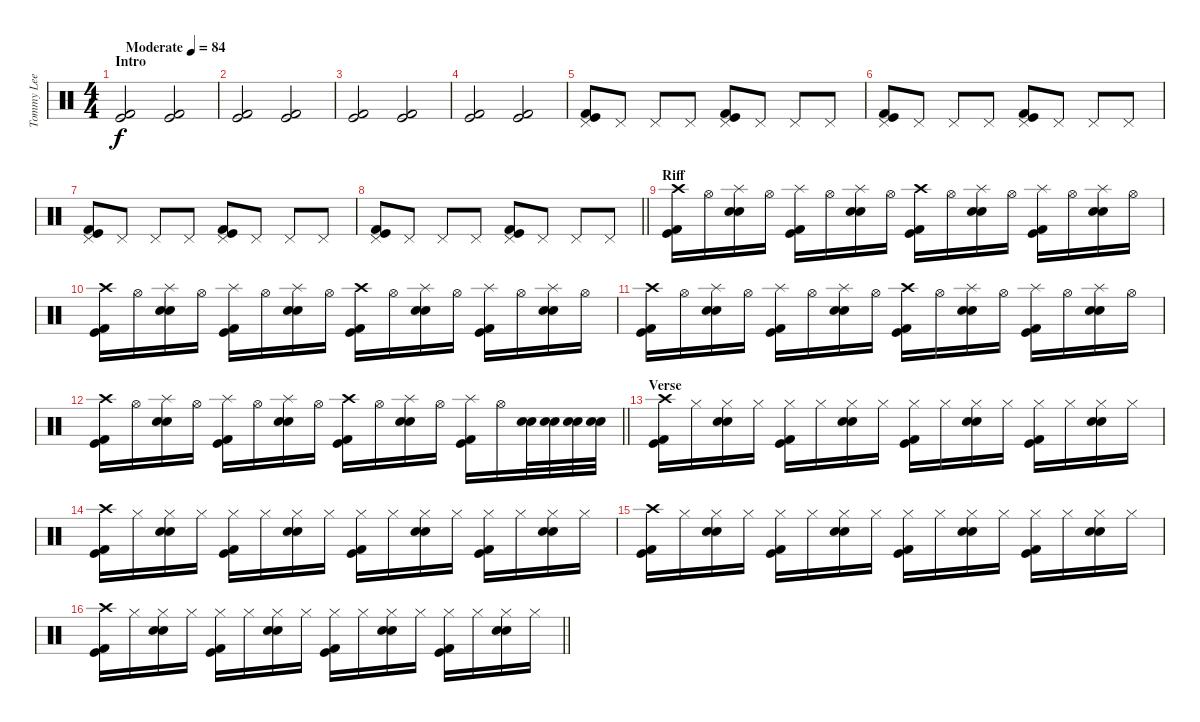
\track ("Tommy Lee" "Tommy Lee") {instrument percussion}
\staff {score}
\articulation defaults
\ts (4 4)
\section ("" "Intro")
\tempo (84 "Moderate")
\clef neutral
\ks c
("Kick (hit) 2" "Kick (hit)").2{dy f volume 5} ("Kick (hit) 2" "Kick (hit)").2 |
("Kick (hit) 2" "Kick (hit)").2 ("Kick (hit) 2" "Kick (hit)").2 |
("Kick (hit) 2" "Kick (hit)").2 ("Kick (hit) 2" "Kick (hit)").2 |
("Kick (hit) 2" "Kick (hit)").2 ("Kick (hit) 2" "Kick (hit)").2 |
("Pedal Hi-Hat (hit)" "Kick (hit) 2" "Kick (hit)").8 "Pedal Hi-Hat (hit)".8 "Pedal Hi-Hat (hit)".8 "Pedal Hi-Hat (hit)".8 ("Pedal Hi-Hat (hit)" "Kick (hit) 2" "Kick (hit)").8 "Pedal Hi-Hat (hit)".8 "Pedal Hi-Hat (hit)".8 "Pedal Hi-Hat (hit)".8 |
("Pedal Hi-Hat (hit)" "Kick (hit) 2" "Kick (hit)").8 "Pedal Hi-Hat (hit)".8 "Pedal Hi-Hat (hit)".8 "Pedal Hi-Hat (hit)".8 ("Pedal Hi-Hat (hit)" "Kick (hit) 2" "Kick (hit)").8 "Pedal Hi-Hat (hit)".8 "Pedal Hi-Hat (hit)".8 "Pedal Hi-Hat (hit)".8 |
("Pedal Hi-Hat (hit)" "Kick (hit) 2" "Kick (hit)").8 "Pedal Hi-Hat (hit)".8 "Pedal Hi-Hat (hit)".8 "Pedal Hi-Hat (hit)".8 ("Pedal Hi-Hat (hit)" "Kick (hit) 2" "Kick (hit)").8 "Pedal Hi-Hat (hit)".8 "Pedal Hi-Hat (hit)".8 "Pedal Hi-Hat (hit)".8 |
\barLineRight lightlight
("Pedal Hi-Hat (hit)" "Kick (hit) 2" "Kick (hit)").8 "Pedal Hi-Hat (hit)".8 "Pedal Hi-Hat (hit)".8 "Pedal Hi-Hat (hit)".8 ("Pedal Hi-Hat (hit)" "Kick (hit) 2" "Kick (hit)").8 "Pedal Hi-Hat (hit)".8 "Pedal Hi-Hat (hit)".8 "Pedal Hi-Hat (hit)".8 |
\section ("" "Riff")
("Crash high (hit)" "Kick (hit) 2" "Kick (hit)").16{volume 13} "Hi-Hat (open)".16 ("Splash (hit)" "Electric Snare (hit)" "Snare (hit) 2").16 "Hi-Hat (open)".16 ("Splash (hit)" "Kick (hit) 2" "Kick (hit)").16 "Hi-Hat (open)".16 ("Splash (hit)" "Electric Snare (hit)" "Snare (hit) 2").16 "Hi-Hat (open)".16 ("Crash high (hit)" "Kick (hit) 2" "Kick (hit)").16 "Hi-Hat (open)".16 ("Splash (hit)" "Electric Snare (hit)" "Snare (hit) 2").16 "Hi-Hat (open)".16 ("Splash (hit)" "Kick (hit) 2" "Kick (hit)").16 "Hi-Hat (open)".16 ("Splash (hit)" "Electric Snare (hit)" "Snare (hit) 2").16 "Hi-Hat (open)".16 |
("Crash high (hit)" "Kick (hit) 2" "Kick (hit)").16 "Hi-Hat (open)".16 ("Splash (hit)" "Electric Snare (hit)" "Snare (hit) 2").16 "Hi-Hat (open)".16 ("Splash (hit)" "Kick (hit) 2" "Kick (hit)").16 "Hi-Hat (open)".16 ("Splash (hit)" "Electric Snare (hit)" "Snare (hit) 2").16 "Hi-Hat (open)".16 ("Crash high (hit)" "Kick (hit) 2" "Kick (hit)").16 "Hi-Hat (open)".16 ("Splash (hit)" "Electric Snare (hit)" "Snare (hit) 2").16 "Hi-Hat (open)".16 ("Splash (hit)" "Kick (hit) 2" "Kick (hit)").16 "Hi-Hat (open)".16 ("Splash (hit)" "Electric Snare (hit)" "Snare (hit) 2").16 "Hi-Hat (open)".16 |
("Crash high (hit)" "Kick (hit) 2" "Kick (hit)").16 "Hi-Hat (open)".16 ("Splash (hit)" "Electric Snare (hit)" "Snare (hit) 2").16 "Hi-Hat (open)".16 ("Splash (hit)" "Kick (hit) 2" "Kick (hit)").16 "Hi-Hat (open)".16 ("Splash (hit)" "Electric Snare (hit)" "Snare (hit) 2").16 "Hi-Hat (open)".16 ("Crash high (hit)" "Kick (hit) 2" "Kick (hit)").16 "Hi-Hat (open)".16 ("Splash (hit)" "Electric Snare (hit)" "Snare (hit) 2").16 "Hi-Hat (open)".16 ("Splash (hit)" "Kick (hit) 2" "Kick (hit)").16 "Hi-Hat (open)".16 ("Splash (hit)" "Electric Snare (hit)" "Snare (hit) 2").16 "Hi-Hat (open)".16 |
\barLineRight lightlight
("Crash high (hit)" "Kick (hit) 2" "Kick (hit)").16 "Hi-Hat (open)".16 ("Splash (hit)" "Electric Snare (hit)" "Snare (hit) 2").16 "Hi-Hat (open)".16 ("Splash (hit)" "Kick (hit) 2" "Kick (hit)").16 "Hi-Hat (open)".16 ("Splash (hit)" "Electric Snare (hit)" "Snare (hit) 2").16 "Hi-Hat (open)".16 ("Crash high (hit)" "Kick (hit) 2" "Kick (hit)").16 "Hi-Hat (open)".16 ("Splash (hit)" "Electric Snare (hit)" "Snare (hit) 2").16 "Hi-Hat (open)".16 ("Splash (hit)" "Kick (hit) 2" "Kick (hit)").16 "Hi-Hat (open)".16 ("Electric Snare (hit)" "Snare (hit) 2").32 ("Electric Snare (hit)" "Snare (hit) 2").32 ("Electric Snare (hit)" "Snare (hit) 2").32 ("Electric Snare (hit)" "Snare (hit) 2").32 |
\section ("" "Verse")
("Crash high (hit)" "Kick (hit) 2" "Kick (hit)").16 "Hi-Hat (closed)".16 ("Hi-Hat (closed)" "Electric Snare (hit)" "Snare (hit) 2").16 "Hi-Hat (closed)".16 ("Hi-Hat (closed)" "Kick (hit) 2" "Kick (hit)").16 "Hi-Hat (closed)".16 ("Hi-Hat (closed)" "Electric Snare (hit)" "Snare (hit) 2").16 "Hi-Hat (closed)".16 ("Hi-Hat (closed)" "Kick (hit) 2" "Kick (hit)").16 "Hi-Hat (closed)".16 ("Hi-Hat (closed)" "Electric Snare (hit)" "Snare (hit) 2").16 "Hi-Hat (closed)".16 ("Hi-Hat (closed)" "Kick (hit) 2" "Kick (hit)").16 "Hi-Hat (closed)".16 ("Hi-Hat (closed)" "Electric Snare (hit)" "Snare (hit) 2").16 "Hi-Hat (closed)".16 |
("Crash high (hit)" "Kick (hit) 2" "Kick (hit)").16 "Hi-Hat (closed)".16 ("Hi-Hat (closed)" "Electric Snare (hit)" "Snare (hit) 2").16 "Hi-Hat (closed)".16 ("Hi-Hat (closed)" "Kick (hit) 2" "Kick (hit)").16 "Hi-Hat (closed)".16 ("Hi-Hat (closed)" "Electric Snare (hit)" "Snare (hit) 2").16 "Hi-Hat (closed)".16 ("Hi-Hat (closed)" "Kick (hit) 2" "Kick (hit)").16 "Hi-Hat (closed)".16 ("Hi-Hat (closed)" "Electric Snare (hit)" "Snare (hit) 2").16 "Hi-Hat (closed)".16 ("Hi-Hat (closed)" "Kick (hit) 2" "Kick (hit)").16 "Hi-Hat (closed)".16 ("Hi-Hat (closed)" "Electric Snare (hit)" "Snare (hit) 2").16 "Hi-Hat (closed)".16 |
("Crash high (hit)" "Kick (hit) 2" "Kick (hit)").16 "Hi-Hat (closed)".16 ("Hi-Hat (closed)" "Electric Snare (hit)" "Snare (hit) 2").16 "Hi-Hat (closed)".16 ("Hi-Hat (closed)" "Kick (hit) 2" "Kick (hit)").16 "Hi-Hat (closed)".16 ("Hi-Hat (closed)" "Electric Snare (hit)" "Snare (hit) 2").16 "Hi-Hat (closed)".16 ("Hi-Hat (closed)" "Kick (hit) 2" "Kick (hit)").16 "Hi-Hat (closed)".16 ("Hi-Hat (closed)" "Electric Snare (hit)" "Snare (hit) 2").16 "Hi-Hat (closed)".16 ("Hi-Hat (closed)" "Kick (hit) 2" "Kick (hit)").16 "Hi-Hat (closed)".16 ("Hi-Hat (closed)" "Electric Snare (hit)" "Snare (hit) 2").16 "Hi-Hat (closed)".16 |
\barLineRight lightlight
("Crash high (hit)" "Kick (hit) 2" "Kick (hit)").16 "Hi-Hat (closed)".16 ("Hi-Hat (closed)" "Electric Snare (hit)" "Snare (hit) 2").16 "Hi-Hat (closed)".16 ("Hi-Hat (closed)" "Kick (hit) 2" "Kick (hit)").16 "Hi-Hat (closed)".16 ("Hi-Hat (closed)" "Electric Snare (hit)" "Snare (hit) 2").16 "Hi-Hat (closed)".16 ("Hi-Hat (closed)" "Kick (hit) 2" "Kick (hit)").16 "Hi-Hat (closed)".16 ("Hi-Hat (closed)" "Electric Snare (hit)" "Snare (hit) 2").16 "Hi-Hat (closed)".16 ("Hi-Hat (closed)" "Kick (hit) 2" "Kick (hit)").16 "Hi-Hat (closed)".16 ("Hi-Hat (closed)" "Electric Snare (hit)" "Snare (hit) 2").16 "Hi-Hat (closed)".16
